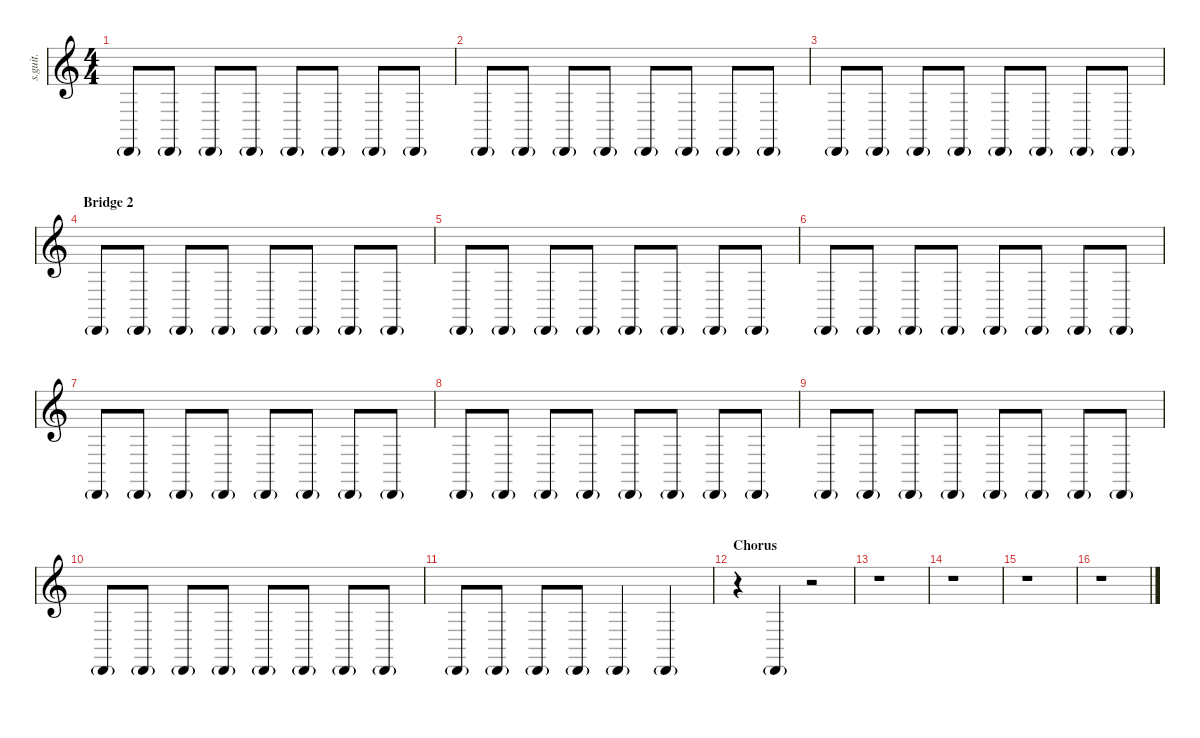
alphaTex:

\defaultSystemsLayout 4
\hideDynamics
\bracketExtendMode nobrackets
\track ("Shaker" "s.guit.") {instrument percussion}
\staff {score}
\articulation defaults
\ts (4 4)
\tempo (124 hide)
\clef g2
\ks c "Cabasa (hit)"{g}.8{lyrics (0 "") lyrics (1 "") lyrics (2 "") lyrics (3 "") lyrics (4 "") dy p} "Cabasa (hit)"{g}.8{lyrics (0 "") lyrics (1 "") lyrics (2 "") lyrics (3 "") lyrics (4 "") dy pp} "Cabasa (hit)"{g}.8{lyrics (0 "") lyrics (1 "") lyrics (2 "") lyrics (3 "") lyrics (4 "") dy p} "Cabasa (hit)"{g}.8{lyrics (0 "") lyrics (1 "") lyrics (2 "") lyrics (3 "") lyrics (4 "") dy pp} "Cabasa (hit)"{g}.8{lyrics (0 "") lyrics (1 "") lyrics (2 "") lyrics (3 "") lyrics (4 "") dy p} "Cabasa (hit)"{g}.8{lyrics (0 "") lyrics (1 "") lyrics (2 "") lyrics (3 "") lyrics (4 "") dy pp} "Cabasa (hit)"{g}.8{lyrics (0 "") lyrics (1 "") lyrics (2 "") lyrics (3 "") lyrics (4 "") dy p} "Cabasa (hit)"{g}.8{lyrics (0 "") lyrics (1 "") lyrics (2 "") lyrics (3 "") lyrics (4 "") dy pp}
|
"Cabasa (hit)"{g}.8{lyrics (0 "") lyrics (1 "") lyrics (2 "") lyrics (3 "") lyrics (4 "") dy p} "Cabasa (hit)"{g}.8{lyrics (0 "") lyrics (1 "") lyrics (2 "") lyrics (3 "") lyrics (4 "") dy pp} "Cabasa (hit)"{g}.8{lyrics (0 "") lyrics (1 "") lyrics (2 "") lyrics (3 "") lyrics (4 "") dy p} "Cabasa (hit)"{g}.8{lyrics (0 "") lyrics (1 "") lyrics (2 "") lyrics (3 "") lyrics (4 "") dy pp} "Cabasa (hit)"{g}.8{lyrics (0 "") lyrics (1 "") lyrics (2 "") lyrics (3 "") lyrics (4 "") dy p} "Cabasa (hit)"{g}.8{lyrics (0 "") lyrics (1 "") lyrics (2 "") lyrics (3 "") lyrics (4 "") dy pp} "Cabasa (hit)"{g}.8{lyrics (0 "") lyrics (1 "") lyrics (2 "") lyrics (3 "") lyrics (4 "") dy p} "Cabasa (hit)"{g}.8{lyrics (0 "") lyrics (1 "") lyrics (2 "") lyrics (3 "") lyrics (4 "") dy pp} |
"Cabasa (hit)"{g}.8{lyrics (0 "") lyrics (1 "") lyrics (2 "") lyrics (3 "") lyrics (4 "") dy p} "Cabasa (hit)"{g}.8{lyrics (0 "") lyrics (1 "") lyrics (2 "") lyrics (3 "") lyrics (4 "") dy pp} "Cabasa (hit)"{g}.8{lyrics (0 "") lyrics (1 "") lyrics (2 "") lyrics (3 "") lyrics (4 "") dy p} "Cabasa (hit)"{g}.8{lyrics (0 "") lyrics (1 "") lyrics (2 "") lyrics (3 "") lyrics (4 "") dy pp} "Cabasa (hit)"{g}.8{lyrics (0 "") lyrics (1 "") lyrics (2 "") lyrics (3 "") lyrics (4 "") dy p} "Cabasa (hit)"{g}.8{lyrics (0 "") lyrics (1 "") lyrics (2 "") lyrics (3 "") lyrics (4 "") dy pp} "Cabasa (hit)"{g}.8{lyrics (0 "") lyrics (1 "") lyrics (2 "") lyrics (3 "") lyrics (4 "") dy p} "Cabasa (hit)"{g}.8{lyrics (0 "") lyrics (1 "") lyrics (2 "") lyrics (3 "") lyrics (4 "") dy pp} |
\section ("" "Bridge 2")
"Cabasa (hit)"{g}.8{lyrics (0 "") lyrics (1 "") lyrics (2 "") lyrics (3 "") lyrics (4 "") dy p} "Cabasa (hit)"{g}.8{lyrics (0 "") lyrics (1 "") lyrics (2 "") lyrics (3 "") lyrics (4 "") dy pp} "Cabasa (hit)"{g}.8{lyrics (0 "") lyrics (1 "") lyrics (2 "") lyrics (3 "") lyrics (4 "") dy p} "Cabasa (hit)"{g}.8{lyrics (0 "") lyrics (1 "") lyrics (2 "") lyrics (3 "") lyrics (4 "") dy pp} "Cabasa (hit)"{g}.8{lyrics (0 "") lyrics (1 "") lyrics (2 "") lyrics (3 "") lyrics (4 "") dy p} "Cabasa (hit)"{g}.8{lyrics (0 "") lyrics (1 "") lyrics (2 "") lyrics (3 "") lyrics (4 "") dy pp} "Cabasa (hit)"{g}.8{lyrics (0 "") lyrics (1 "") lyrics (2 "") lyrics (3 "") lyrics (4 "") dy p} "Cabasa (hit)"{g}.8{lyrics (0 "") lyrics (1 "") lyrics (2 "") lyrics (3 "") lyrics (4 "") dy pp} |
"Cabasa (hit)"{g}.8{lyrics (0 "") lyrics (1 "") lyrics (2 "") lyrics (3 "") lyrics (4 "") dy p} "Cabasa (hit)"{g}.8{lyrics (0 "") lyrics (1 "") lyrics (2 "") lyrics (3 "") lyrics (4 "") dy pp} "Cabasa (hit)"{g}.8{lyrics (0 "") lyrics (1 "") lyrics (2 "") lyrics (3 "") lyrics (4 "") dy p} "Cabasa (hit)"{g}.8{lyrics (0 "") lyrics (1 "") lyrics (2 "") lyrics (3 "") lyrics (4 "") dy pp} "Cabasa (hit)"{g}.8{lyrics (0 "") lyrics (1 "") lyrics (2 "") lyrics (3 "") lyrics (4 "") dy p} "Cabasa (hit)"{g}.8{lyrics (0 "") lyrics (1 "") lyrics (2 "") lyrics (3 "") lyrics (4 "") dy pp} "Cabasa (hit)"{g}.8{lyrics (0 "") lyrics (1 "") lyrics (2 "") lyrics (3 "") lyrics (4 "") dy p} "Cabasa (hit)"{g}.8{lyrics (0 "") lyrics (1 "") lyrics (2 "") lyrics (3 "") lyrics (4 "") dy pp} |
"Cabasa (hit)"{g}.8{lyrics (0 "") lyrics (1 "") lyrics (2 "") lyrics (3 "") lyrics (4 "") dy p} "Cabasa (hit)"{g}.8{lyrics (0 "") lyrics (1 "") lyrics (2 "") lyrics (3 "") lyrics (4 "") dy pp} "Cabasa (hit)"{g}.8{lyrics (0 "") lyrics (1 "") lyrics (2 "") lyrics (3 "") lyrics (4 "") dy p} "Cabasa (hit)"{g}.8{lyrics (0 "") lyrics (1 "") lyrics (2 "") lyrics (3 "") lyrics (4 "") dy pp} "Cabasa (hit)"{g}.8{lyrics (0 "") lyrics (1 "") lyrics (2 "") lyrics (3 "") lyrics (4 "") dy p} "Cabasa (hit)"{g}.8{lyrics (0 "") lyrics (1 "") lyrics (2 "") lyrics (3 "") lyrics (4 "") dy pp} "Cabasa (hit)"{g}.8{lyrics (0 "") lyrics (1 "") lyrics (2 "") lyrics (3 "") lyrics (4 "") dy p} "Cabasa (hit)"{g}.8{lyrics (0 "") lyrics (1 "") lyrics (2 "") lyrics (3 "") lyrics (4 "") dy pp} |
"Cabasa (hit)"{g}.8{lyrics (0 "") lyrics (1 "") lyrics (2 "") lyrics (3 "") lyrics (4 "") dy p} "Cabasa (hit)"{g}.8{lyrics (0 "") lyrics (1 "") lyrics (2 "") lyrics (3 "") lyrics (4 "") dy pp} "Cabasa (hit)"{g}.8{lyrics (0 "") lyrics (1 "") lyrics (2 "") lyrics (3 "") lyrics (4 "") dy p} "Cabasa (hit)"{g}.8{lyrics (0 "") lyrics (1 "") lyrics (2 "") lyrics (3 "") lyrics (4 "") dy pp} "Cabasa (hit)"{g}.8{lyrics (0 "") lyrics (1 "") lyrics (2 "") lyrics (3 "") lyrics (4 "") dy p} "Cabasa (hit)"{g}.8{lyrics (0 "") lyrics (1 "") lyrics (2 "") lyrics (3 "") lyrics (4 "") dy pp} "Cabasa (hit)"{g}.8{lyrics (0 "") lyrics (1 "") lyrics (2 "") lyrics (3 "") lyrics (4 "") dy p} "Cabasa (hit)"{g}.8{lyrics (0 "") lyrics (1 "") lyrics (2 "") lyrics (3 "") lyrics (4 "") dy pp} |
"Cabasa (hit)"{g}.8{lyrics (0 "") lyrics (1 "") lyrics (2 "") lyrics (3 "") lyrics (4 "") dy p} "Cabasa (hit)"{g}.8{lyrics (0 "") lyrics (1 "") lyrics (2 "") lyrics (3 "") lyrics (4 "") dy pp} "Cabasa (hit)"{g}.8{lyrics (0 "") lyrics (1 "") lyrics (2 "") lyrics (3 "") lyrics (4 "") dy p} "Cabasa (hit)"{g}.8{lyrics (0 "") lyrics (1 "") lyrics (2 "") lyrics (3 "") lyrics (4 "") dy pp} "Cabasa (hit)"{g}.8{lyrics (0 "") lyrics (1 "") lyrics (2 "") lyrics (3 "") lyrics (4 "") dy p} "Cabasa (hit)"{g}.8{lyrics (0 "") lyrics (1 "") lyrics (2 "") lyrics (3 "") lyrics (4 "") dy pp} "Cabasa (hit)"{g}.8{lyrics (0 "") lyrics (1 "") lyrics (2 "") lyrics (3 "") lyrics (4 "") dy p} "Cabasa (hit)"{g}.8{lyrics (0 "") lyrics (1 "") lyrics (2 "") lyrics (3 "") lyrics (4 "") dy pp} |
"Cabasa (hit)"{g}.8{lyrics (0 "") lyrics (1 "") lyrics (2 "") lyrics (3 "") lyrics (4 "") dy p} "Cabasa (hit)"{g}.8{lyrics (0 "") lyrics (1 "") lyrics (2 "") lyrics (3 "") lyrics (4 "") dy pp} "Cabasa (hit)"{g}.8{lyrics (0 "") lyrics (1 "") lyrics (2 "") lyrics (3 "") lyrics (4 "") dy p} "Cabasa (hit)"{g}.8{lyrics (0 "") lyrics (1 "") lyrics (2 "") lyrics (3 "") lyrics (4 "") dy pp} "Cabasa (hit)"{g}.8{lyrics (0 "") lyrics (1 "") lyrics (2 "") lyrics (3 "") lyrics (4 "") dy p} "Cabasa (hit)"{g}.8{lyrics (0 "") lyrics (1 "") lyrics (2 "") lyrics (3 "") lyrics (4 "") dy pp} "Cabasa (hit)"{g}.8{lyrics (0 "") lyrics (1 "") lyrics (2 "") lyrics (3 "") lyrics (4 "") dy p} "Cabasa (hit)"{g}.8{lyrics (0 "") lyrics (1 "") lyrics (2 "") lyrics (3 "") lyrics (4 "") dy pp} |
"Cabasa (hit)"{g}.8{lyrics (0 "") lyrics (1 "") lyrics (2 "") lyrics (3 "") lyrics (4 "") dy p} "Cabasa (hit)"{g}.8{lyrics (0 "") lyrics (1 "") lyrics (2 "") lyrics (3 "") lyrics (4 "") dy pp} "Cabasa (hit)"{g}.8{lyrics (0 "") lyrics (1 "") lyrics (2 "") lyrics (3 "") lyrics (4 "") dy p} "Cabasa (hit)"{g}.8{lyrics (0 "") lyrics (1 "") lyrics (2 "") lyrics (3 "") lyrics (4 "") dy pp} "Cabasa (hit)"{g}.8{lyrics (0 "") lyrics (1 "") lyrics (2 "") lyrics (3 "") lyrics (4 "") dy p} "Cabasa (hit)"{g}.8{lyrics (0 "") lyrics (1 "") lyrics (2 "") lyrics (3 "") lyrics (4 "") dy pp} "Cabasa (hit)"{g}.8{lyrics (0 "") lyrics (1 "") lyrics (2 "") lyrics (3 "") lyrics (4 "") dy p} "Cabasa (hit)"{g}.8{lyrics (0 "") lyrics (1 "") lyrics (2 "") lyrics (3 "") lyrics (4 "") dy pp} |
"Cabasa (hit)"{g}.8{lyrics (0 "") lyrics (1 "") lyrics (2 "") lyrics (3 "") lyrics (4 "") dy p} "Cabasa (hit)"{g}.8{lyrics (0 "") lyrics (1 "") lyrics (2 "") lyrics (3 "") lyrics (4 "") dy pp} "Cabasa (hit)"{g}.8{lyrics (0 "") lyrics (1 "") lyrics (2 "") lyrics (3 "") lyrics (4 "") dy p} "Cabasa (hit)"{g}.8{lyrics (0 "") lyrics (1 "") lyrics (2 "") lyrics (3 "") lyrics (4 "") dy pp} "Cabasa (hit)"{g}.4{lyrics (0 "") lyrics (1 "") lyrics (2 "") lyrics (3 "") lyrics (4 "") dy p} "Cabasa (hit)"{g}.4{lyrics (0 "") lyrics (1 "") lyrics (2 "") lyrics (3 "") lyrics (4 "")} |
\section ("" "Chorus")
r.4 "Cabasa (hit)"{g}.4{lyrics (0 "") lyrics (1 "") lyrics (2 "") lyrics (3 "") lyrics (4 "") dy mp} r.2 |
r.1 |
r.1 |
r.1 |
r.1
